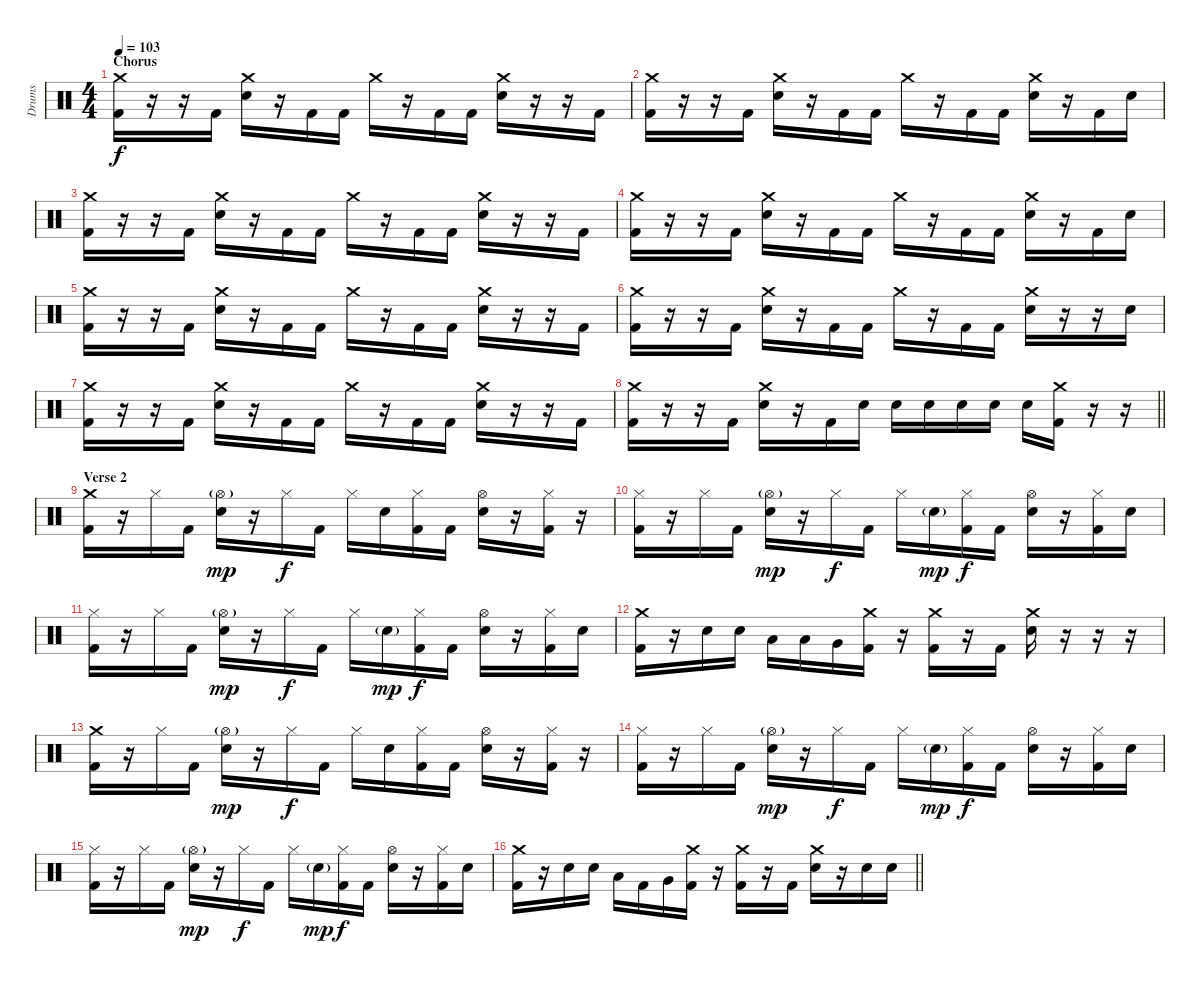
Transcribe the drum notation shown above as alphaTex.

\track ("Drums" "Drums") {instrument percussion}
\staff {score}
\articulation defaults
\ts (4 4)
\section ("" "Chorus")
\tempo 103
\clef neutral
\ks c
("Crash medium (hit)" "Kick (hit) 2").16{dy f} r.16 r.16 "Kick (hit) 2".16 ("Crash medium (hit)" "Electric Snare (hit)").16 r.16 "Kick (hit) 2".16 "Kick (hit) 2".16 "Crash medium (hit)".16 r.16 "Kick (hit) 2".16 "Kick (hit) 2".16 ("Crash medium (hit)" "Electric Snare (hit)").16 r.16 r.16 "Kick (hit) 2".16 |
("Crash medium (hit)" "Kick (hit) 2").16 r.16 r.16 "Kick (hit) 2".16 ("Crash medium (hit)" "Electric Snare (hit)").16 r.16 "Kick (hit) 2".16 "Kick (hit) 2".16 "Crash medium (hit)".16 r.16 "Kick (hit) 2".16 "Kick (hit) 2".16 ("Crash medium (hit)" "Electric Snare (hit)").16 r.16 "Kick (hit) 2".16 "Electric Snare (hit)".16 |
("Crash medium (hit)" "Kick (hit) 2").16 r.16 r.16 "Kick (hit) 2".16 ("Crash medium (hit)" "Electric Snare (hit)").16 r.16 "Kick (hit) 2".16 "Kick (hit) 2".16 "Crash medium (hit)".16 r.16 "Kick (hit) 2".16 "Kick (hit) 2".16 ("Crash medium (hit)" "Electric Snare (hit)").16 r.16 r.16 "Kick (hit) 2".16 |
("Crash medium (hit)" "Kick (hit) 2").16 r.16 r.16 "Kick (hit) 2".16 ("Crash medium (hit)" "Electric Snare (hit)").16 r.16 "Kick (hit) 2".16 "Kick (hit) 2".16 "Crash medium (hit)".16 r.16 "Kick (hit) 2".16 "Kick (hit) 2".16 ("Crash medium (hit)" "Electric Snare (hit)").16 r.16 "Kick (hit) 2".16 "Electric Snare (hit)".16 |
("Crash medium (hit)" "Kick (hit) 2").16 r.16 r.16 "Kick (hit) 2".16 ("Crash medium (hit)" "Electric Snare (hit)").16 r.16 "Kick (hit) 2".16 "Kick (hit) 2".16 "Crash medium (hit)".16 r.16 "Kick (hit) 2".16 "Kick (hit) 2".16 ("Crash medium (hit)" "Electric Snare (hit)").16 r.16 r.16 "Kick (hit) 2".16 |
("Crash medium (hit)" "Kick (hit) 2").16 r.16 r.16 "Kick (hit) 2".16 ("Crash medium (hit)" "Electric Snare (hit)").16 r.16 "Kick (hit) 2".16 "Kick (hit) 2".16 "Crash medium (hit)".16 r.16 "Kick (hit) 2".16 "Kick (hit) 2".16 ("Crash medium (hit)" "Electric Snare (hit)").16 r.16 r.16 "Electric Snare (hit)".16 |
("Crash medium (hit)" "Kick (hit) 2").16 r.16 r.16 "Kick (hit) 2".16 ("Crash medium (hit)" "Electric Snare (hit)").16 r.16 "Kick (hit) 2".16 "Kick (hit) 2".16 "Crash medium (hit)".16 r.16 "Kick (hit) 2".16 "Kick (hit) 2".16 ("Crash medium (hit)" "Electric Snare (hit)").16 r.16 r.16 "Kick (hit) 2".16 |
\barLineRight lightlight
("Crash medium (hit)" "Kick (hit) 2").16 r.16 r.16 "Kick (hit) 2".16 ("Crash medium (hit)" "Electric Snare (hit)").16 r.16 "Kick (hit) 2".16 "Electric Snare (hit)".16 "Electric Snare (hit)".16 "Electric Snare (hit)".16 "Electric Snare (hit)".16 "Electric Snare (hit)".16 "Electric Snare (hit)".16 ("Crash medium (hit)" "Kick (hit) 2").16 r.16 r.16 |
\section ("" "Verse 2")
("Crash medium (hit)" "Kick (hit) 2").16 r.16 "Hi-Hat (closed)".16 "Kick (hit) 2".16 ("Hi-Hat (open)"{g} "Electric Snare (hit)").16{dy mp} r.16 "Hi-Hat (closed)".16{dy f} "Kick (hit) 2".16 "Hi-Hat (closed)".16 "Electric Snare (hit)".16 ("Hi-Hat (closed)" "Kick (hit) 2").16 "Kick (hit) 2".16 ("Hi-Hat (open)" "Electric Snare (hit)").16 r.16 ("Hi-Hat (closed)" "Kick (hit) 2").16 r.16 |
("Hi-Hat (closed)" "Kick (hit) 2").16 r.16 "Hi-Hat (closed)".16 "Kick (hit) 2".16 ("Hi-Hat (open)"{g} "Electric Snare (hit)").16{dy mp} r.16 "Hi-Hat (closed)".16{dy f} "Kick (hit) 2".16 "Hi-Hat (closed)".16 "Electric Snare (hit)"{g}.16{dy mp} ("Hi-Hat (closed)" "Kick (hit) 2").16{dy f} "Kick (hit) 2".16 ("Hi-Hat (open)" "Electric Snare (hit)").16 r.16 ("Hi-Hat (closed)" "Kick (hit) 2").16 "Electric Snare (hit)".16 |
("Hi-Hat (closed)" "Kick (hit) 2").16 r.16 "Hi-Hat (closed)".16 "Kick (hit) 2".16 ("Hi-Hat (open)"{g} "Electric Snare (hit)").16{dy mp} r.16 "Hi-Hat (closed)".16{dy f} "Kick (hit) 2".16 "Hi-Hat (closed)".16 "Electric Snare (hit)"{g}.16{dy mp} ("Hi-Hat (closed)" "Kick (hit) 2").16{dy f} "Kick (hit) 2".16 ("Hi-Hat (open)" "Electric Snare (hit)").16 r.16 ("Hi-Hat (closed)" "Kick (hit) 2").16 "Electric Snare (hit)".16 |
("Crash medium (hit)" "Kick (hit) 2").16 r.16 "Electric Snare (hit)".16 "Electric Snare (hit)".16 "Low Tom (hit)".16 "Low Tom (hit)".16 "Very Low Tom (hit)".16 ("Crash medium (hit)" "Kick (hit) 2").16 r.16 ("Crash medium (hit)" "Kick (hit) 2").16 r.16 "Kick (hit) 2".16 ("Crash medium (hit)" "Electric Snare (hit)").16 r.16 r.16 r.16 |
("Crash medium (hit)" "Kick (hit) 2").16 r.16 "Hi-Hat (closed)".16 "Kick (hit) 2".16 ("Hi-Hat (open)"{g} "Electric Snare (hit)").16{dy mp} r.16 "Hi-Hat (closed)".16{dy f} "Kick (hit) 2".16 "Hi-Hat (closed)".16 "Electric Snare (hit)".16 ("Hi-Hat (closed)" "Kick (hit) 2").16 "Kick (hit) 2".16 ("Hi-Hat (open)" "Electric Snare (hit)").16 r.16 ("Hi-Hat (closed)" "Kick (hit) 2").16 r.16 |
("Hi-Hat (closed)" "Kick (hit) 2").16 r.16 "Hi-Hat (closed)".16 "Kick (hit) 2".16 ("Hi-Hat (open)"{g} "Electric Snare (hit)").16{dy mp} r.16 "Hi-Hat (closed)".16{dy f} "Kick (hit) 2".16 "Hi-Hat (closed)".16 "Electric Snare (hit)"{g}.16{dy mp} ("Hi-Hat (closed)" "Kick (hit) 2").16{dy f} "Kick (hit) 2".16 ("Hi-Hat (open)" "Electric Snare (hit)").16 r.16 ("Hi-Hat (closed)" "Kick (hit) 2").16 "Electric Snare (hit)".16 |
("Hi-Hat (closed)" "Kick (hit) 2").16 r.16 "Hi-Hat (closed)".16 "Kick (hit) 2".16 ("Hi-Hat (open)"{g} "Electric Snare (hit)").16{dy mp} r.16 "Hi-Hat (closed)".16{dy f} "Kick (hit) 2".16 "Hi-Hat (closed)".16 "Electric Snare (hit)"{g}.16{dy mp} ("Hi-Hat (closed)" "Kick (hit) 2").16{dy f} "Kick (hit) 2".16 ("Hi-Hat (open)" "Electric Snare (hit)").16 r.16 ("Hi-Hat (closed)" "Kick (hit) 2").16 "Electric Snare (hit)".16 |
\barLineRight lightlight
("Crash medium (hit)" "Kick (hit) 2").16 r.16 "Electric Snare (hit)".16 "Electric Snare (hit)".16 "Low Tom (hit)".16 "Kick (hit) 2".16 "Very Low Tom (hit)".16 ("Crash medium (hit)" "Kick (hit) 2").16 r.16 ("Crash medium (hit)" "Kick (hit) 2").16 r.16 "Kick (hit) 2".16 ("Crash medium (hit)" "Electric Snare (hit)").16 r.16 "Electric Snare (hit)".16 "Electric Snare (hit)".16
